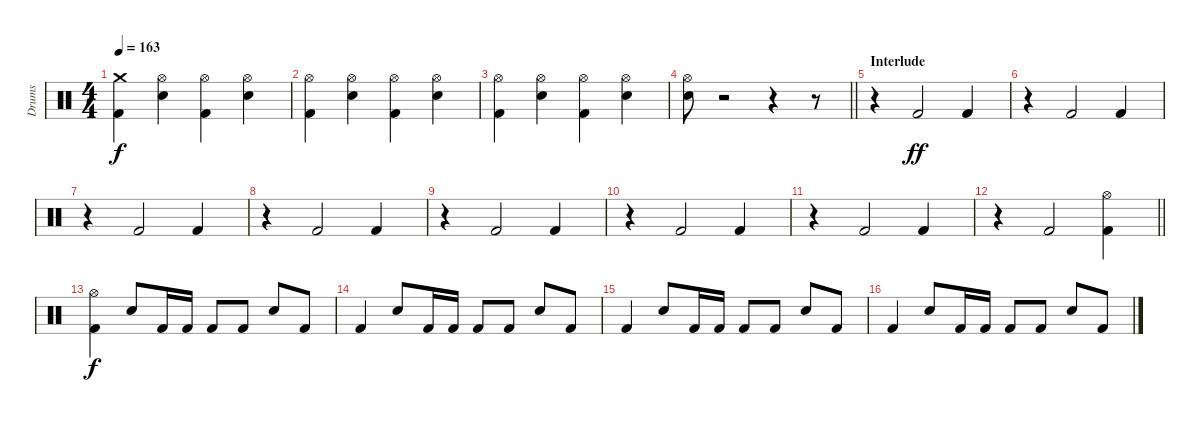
\track ("Drums" "Drums") {instrument percussion}
\staff {score}
\articulation defaults
\ts (4 4)
\tempo 163
\clef neutral
\ks c
("Crash medium (hit)" "Kick (hit) 2").4{dy f} ("Hi-Hat (open)" "Electric Snare (hit)").4 ("Hi-Hat (open)" "Kick (hit) 2").4 ("Hi-Hat (open)" "Electric Snare (hit)").4 |
("Hi-Hat (open)" "Kick (hit) 2").4 ("Hi-Hat (open)" "Electric Snare (hit)").4 ("Hi-Hat (open)" "Kick (hit) 2").4 ("Hi-Hat (open)" "Electric Snare (hit)").4 |
("Hi-Hat (open)" "Kick (hit) 2").4 ("Hi-Hat (open)" "Electric Snare (hit)").4 ("Hi-Hat (open)" "Kick (hit) 2").4 ("Hi-Hat (open)" "Electric Snare (hit)").4 |
\barLineRight lightlight
("Hi-Hat (open)" "Electric Snare (hit)").8 r.2 r.4 r.8 |
\section ("" "Interlude")
r.4 "Kick (hit) 2".2{dy ff} "Kick (hit) 2".4 |
r.4 "Kick (hit) 2".2 "Kick (hit) 2".4 |
r.4 "Kick (hit) 2".2 "Kick (hit) 2".4 |
r.4 "Kick (hit) 2".2 "Kick (hit) 2".4 |
r.4 "Kick (hit) 2".2 "Kick (hit) 2".4 |
r.4 "Kick (hit) 2".2 "Kick (hit) 2".4 |
r.4 "Kick (hit) 2".2 "Kick (hit) 2".4 |
\barLineRight lightlight
r.4 "Kick (hit) 2".2 ("Hi-Hat (open)" "Kick (hit) 2").4 |
\section ("" "")
("Hi-Hat (open)" "Kick (hit) 2").4{dy f} "Electric Snare (hit)".8 "Kick (hit) 2".16 "Kick (hit) 2".16 "Kick (hit) 2".8 "Kick (hit) 2".8 "Electric Snare (hit)".8 "Kick (hit) 2".8 |
"Kick (hit) 2".4 "Electric Snare (hit)".8 "Kick (hit) 2".16 "Kick (hit) 2".16 "Kick (hit) 2".8 "Kick (hit) 2".8 "Electric Snare (hit)".8 "Kick (hit) 2".8 |
"Kick (hit) 2".4 "Electric Snare (hit)".8 "Kick (hit) 2".16 "Kick (hit) 2".16 "Kick (hit) 2".8 "Kick (hit) 2".8 "Electric Snare (hit)".8 "Kick (hit) 2".8 |
"Kick (hit) 2".4 "Electric Snare (hit)".8 "Kick (hit) 2".16 "Kick (hit) 2".16 "Kick (hit) 2".8 "Kick (hit) 2".8 "Electric Snare (hit)".8 "Kick (hit) 2".8
